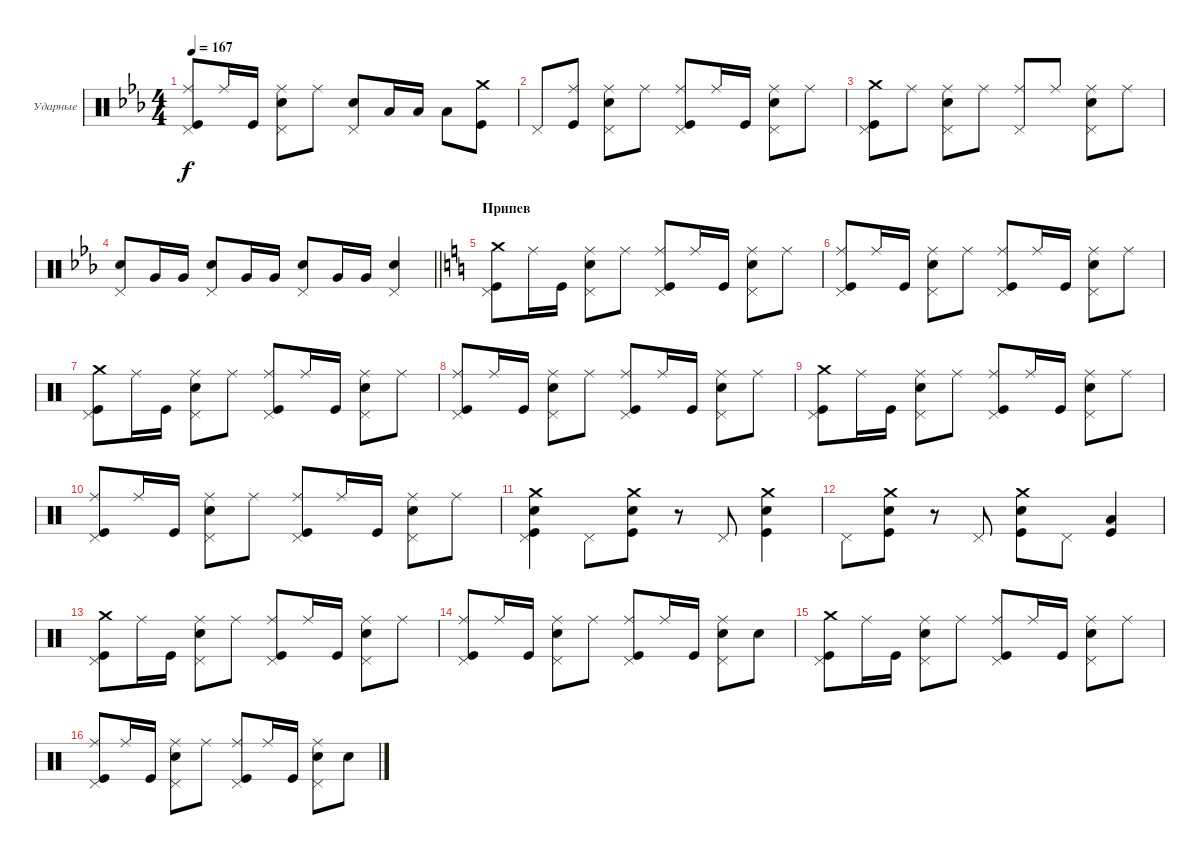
\bracketExtendMode groupsimilarinstruments
\firstSystemTrackNameOrientation horizontal
\otherSystemsTrackNameOrientation horizontal
\track ("Максим Удалов" "Ударные") {instrument percussion}
\staff {score}
\articulation defaults
\ts (4 4)
\tempo 167
\clef neutral
\ks cminor
("Ride (middle)" "Kick (hit)" "Pedal Hi-Hat (hit)").8{dy f} "Ride (middle)".16 "Kick (hit)".16 ("Ride (middle)" "Snare (hit) 2" "Pedal Hi-Hat (hit)").8 "Ride (middle)".8 ("Pedal Hi-Hat (hit)" "Snare (hit) 2").8 "Low Tom (hit)".16 "Low Tom (hit)".16 "Low Tom (hit)".8 ("Crash medium (hit)" "Kick (hit)").8 |
"Pedal Hi-Hat (hit)".8 ("Ride (middle)" "Kick (hit)").8 ("Ride (middle)" "Snare (hit) 2" "Pedal Hi-Hat (hit)").8 "Ride (middle)".8 ("Ride (middle)" "Kick (hit)" "Pedal Hi-Hat (hit)").8 "Ride (middle)".16 "Kick (hit)".16 ("Ride (middle)" "Snare (hit) 2" "Pedal Hi-Hat (hit)").8 "Ride (middle)".8 |
("Pedal Hi-Hat (hit)" "Crash medium (hit)" "Kick (hit)").8 "Ride (middle)".8 ("Ride (middle)" "Snare (hit) 2" "Pedal Hi-Hat (hit)").8 "Ride (middle)".8 ("Pedal Hi-Hat (hit)" "Ride (middle)").8 "Ride (middle)".8 ("Ride (middle)" "Snare (hit) 2" "Pedal Hi-Hat (hit)").8 "Ride (middle)".8 |
\barLineRight lightlight
("Pedal Hi-Hat (hit)" "Snare (hit) 2").8 "Very Low Tom (hit)".16 "Very Low Tom (hit)".16 ("Snare (hit) 2" "Pedal Hi-Hat (hit)").8 "Very Low Tom (hit)".16 "Very Low Tom (hit)".16 ("Snare (hit) 2" "Pedal Hi-Hat (hit)").8 "Very Low Tom (hit)".16 "Very Low Tom (hit)".16 ("Snare (hit) 2" "Pedal Hi-Hat (hit)").4 |
\section ("" "Припев")
\ks aminor
("Kick (hit)" "Pedal Hi-Hat (hit)" "Crash medium (hit)").8 "Ride (middle)".16 "Kick (hit)".16 ("Ride (middle)" "Snare (hit) 2" "Pedal Hi-Hat (hit)").8 "Ride (middle)".8 ("Ride (middle)" "Kick (hit)" "Pedal Hi-Hat (hit)").8 "Ride (middle)".16 "Kick (hit)".16 ("Ride (middle)" "Snare (hit) 2" "Pedal Hi-Hat (hit)").8 "Ride (middle)".8 |
("Kick (hit)" "Ride (middle)" "Pedal Hi-Hat (hit)").8 "Ride (middle)".16 "Kick (hit)".16 ("Snare (hit) 2" "Ride (middle)" "Pedal Hi-Hat (hit)").8 "Ride (middle)".8 ("Ride (middle)" "Kick (hit)" "Pedal Hi-Hat (hit)").8 "Ride (middle)".16 "Kick (hit)".16 ("Snare (hit) 2" "Ride (middle)" "Pedal Hi-Hat (hit)").8 "Ride (middle)".8 |
("Kick (hit)" "Pedal Hi-Hat (hit)" "Crash medium (hit)").8 "Ride (middle)".16 "Kick (hit)".16 ("Ride (middle)" "Snare (hit) 2" "Pedal Hi-Hat (hit)").8 "Ride (middle)".8 ("Ride (middle)" "Kick (hit)" "Pedal Hi-Hat (hit)").8 "Ride (middle)".16 "Kick (hit)".16 ("Ride (middle)" "Snare (hit) 2" "Pedal Hi-Hat (hit)").8 "Ride (middle)".8 |
("Kick (hit)" "Ride (middle)" "Pedal Hi-Hat (hit)").8 "Ride (middle)".16 "Kick (hit)".16 ("Snare (hit) 2" "Ride (middle)" "Pedal Hi-Hat (hit)").8 "Ride (middle)".8 ("Ride (middle)" "Kick (hit)" "Pedal Hi-Hat (hit)").8 "Ride (middle)".16 "Kick (hit)".16 ("Snare (hit) 2" "Ride (middle)" "Pedal Hi-Hat (hit)").8 "Ride (middle)".8 |
("Kick (hit)" "Pedal Hi-Hat (hit)" "Crash medium (hit)").8 "Ride (middle)".16 "Kick (hit)".16 ("Ride (middle)" "Snare (hit) 2" "Pedal Hi-Hat (hit)").8 "Ride (middle)".8 ("Ride (middle)" "Kick (hit)" "Pedal Hi-Hat (hit)").8 "Ride (middle)".16 "Kick (hit)".16 ("Ride (middle)" "Snare (hit) 2" "Pedal Hi-Hat (hit)").8 "Ride (middle)".8 |
("Kick (hit)" "Ride (middle)" "Pedal Hi-Hat (hit)").8 "Ride (middle)".16 "Kick (hit)".16 ("Snare (hit) 2" "Ride (middle)" "Pedal Hi-Hat (hit)").8 "Ride (middle)".8 ("Ride (middle)" "Kick (hit)" "Pedal Hi-Hat (hit)").8 "Ride (middle)".16 "Kick (hit)".16 ("Snare (hit) 2" "Ride (middle)" "Pedal Hi-Hat (hit)").8 "Ride (middle)".8 |
("Snare (hit) 2" "Crash medium (hit)" "Kick (hit)" "Pedal Hi-Hat (hit)").4 "Pedal Hi-Hat (hit)".8 ("Crash medium (hit)" "Kick (hit)" "Snare (hit) 2").8 r.8 "Pedal Hi-Hat (hit)".8 ("Crash medium (hit)" "Snare (hit) 2" "Kick (hit)").4 |
"Pedal Hi-Hat (hit)".8 ("Crash medium (hit)" "Kick (hit)" "Snare (hit) 2").8 r.8 "Pedal Hi-Hat (hit)".8 ("Kick (hit)" "Snare (hit) 2" "Crash medium (hit)").8 "Pedal Hi-Hat (hit)".8 ("Kick (hit)" "Low Tom (hit)").4 |
("Kick (hit)" "Pedal Hi-Hat (hit)" "Crash medium (hit)").8 "Ride (middle)".16 "Kick (hit)".16 ("Ride (middle)" "Snare (hit) 2" "Pedal Hi-Hat (hit)").8 "Ride (middle)".8 ("Ride (middle)" "Kick (hit)" "Pedal Hi-Hat (hit)").8 "Ride (middle)".16 "Kick (hit)".16 ("Ride (middle)" "Snare (hit) 2" "Pedal Hi-Hat (hit)").8 "Ride (middle)".8 |
("Kick (hit)" "Ride (middle)" "Pedal Hi-Hat (hit)").8 "Ride (middle)".16 "Kick (hit)".16 ("Snare (hit) 2" "Ride (middle)" "Pedal Hi-Hat (hit)").8 "Ride (middle)".8 ("Ride (middle)" "Kick (hit)" "Pedal Hi-Hat (hit)").8 "Ride (middle)".16 "Kick (hit)".16 ("Ride (middle)" "Snare (hit) 2" "Pedal Hi-Hat (hit)").8 "Snare (hit) 2".8 |
("Kick (hit)" "Pedal Hi-Hat (hit)" "Crash medium (hit)").8 "Ride (middle)".16 "Kick (hit)".16 ("Ride (middle)" "Snare (hit) 2" "Pedal Hi-Hat (hit)").8 "Ride (middle)".8 ("Ride (middle)" "Kick (hit)" "Pedal Hi-Hat (hit)").8 "Ride (middle)".16 "Kick (hit)".16 ("Ride (middle)" "Snare (hit) 2" "Pedal Hi-Hat (hit)").8 "Ride (middle)".8 |
("Kick (hit)" "Ride (middle)" "Pedal Hi-Hat (hit)").8 "Ride (middle)".16 "Kick (hit)".16 ("Snare (hit) 2" "Ride (middle)" "Pedal Hi-Hat (hit)").8 "Ride (middle)".8 ("Ride (middle)" "Kick (hit)" "Pedal Hi-Hat (hit)").8 "Ride (middle)".16 "Kick (hit)".16 ("Ride (middle)" "Snare (hit) 2" "Pedal Hi-Hat (hit)").8 "Snare (hit) 2".8
